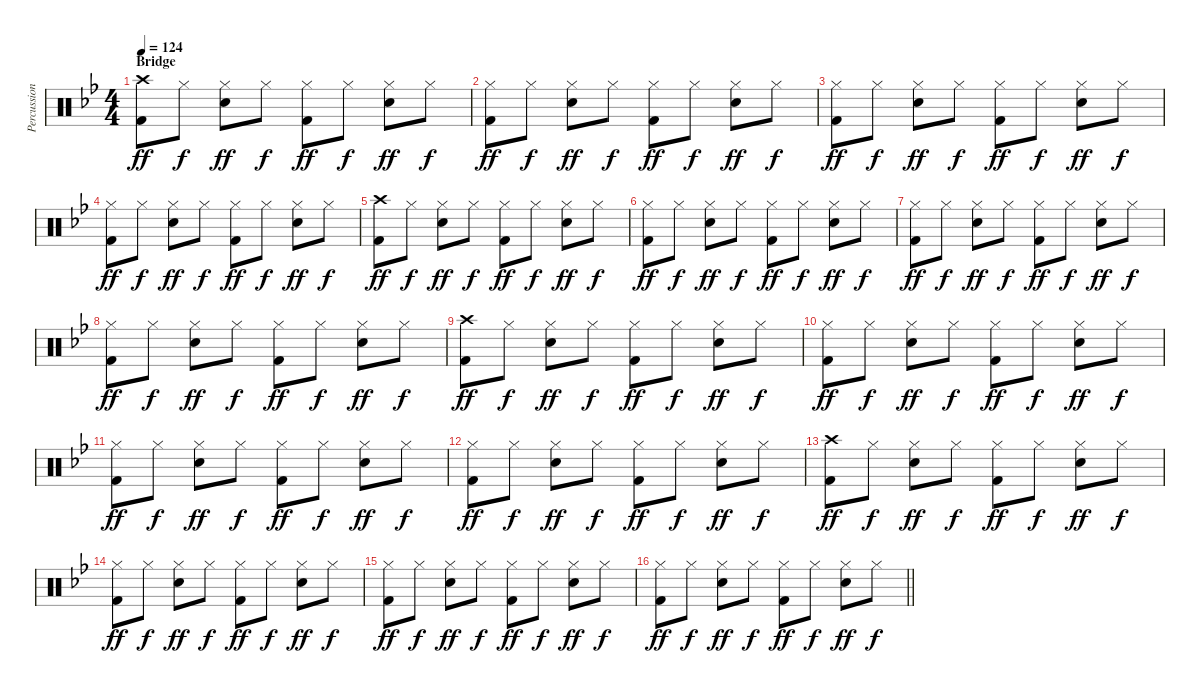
\track ("Percussion" "Percussion") {instrument percussion}
\staff {score}
\articulation defaults
\ts (4 4)
\section ("" "Bridge")
\tempo 124
\clef neutral
\ks gminor
("Crash high (hit)" "Kick (hit) 2").8{dy ff} "Hi-Hat (closed)".8{dy f} ("Hi-Hat (closed)" "Electric Snare (hit)").8{dy ff} "Hi-Hat (closed)".8{dy f} ("Hi-Hat (closed)" "Kick (hit) 2").8{dy ff} "Hi-Hat (closed)".8{dy f} ("Hi-Hat (closed)" "Electric Snare (hit)").8{dy ff} "Hi-Hat (closed)".8{dy f} |
("Hi-Hat (closed)" "Kick (hit) 2").8{dy ff} "Hi-Hat (closed)".8{dy f} ("Hi-Hat (closed)" "Electric Snare (hit)").8{dy ff} "Hi-Hat (closed)".8{dy f} ("Hi-Hat (closed)" "Kick (hit) 2").8{dy ff} "Hi-Hat (closed)".8{dy f} ("Hi-Hat (closed)" "Electric Snare (hit)").8{dy ff} "Hi-Hat (closed)".8{dy f} |
("Hi-Hat (closed)" "Kick (hit) 2").8{dy ff} "Hi-Hat (closed)".8{dy f} ("Hi-Hat (closed)" "Electric Snare (hit)").8{dy ff} "Hi-Hat (closed)".8{dy f} ("Hi-Hat (closed)" "Kick (hit) 2").8{dy ff} "Hi-Hat (closed)".8{dy f} ("Hi-Hat (closed)" "Electric Snare (hit)").8{dy ff} "Hi-Hat (closed)".8{dy f} |
("Hi-Hat (closed)" "Kick (hit) 2").8{dy ff} "Hi-Hat (closed)".8{dy f} ("Hi-Hat (closed)" "Electric Snare (hit)").8{dy ff} "Hi-Hat (closed)".8{dy f} ("Hi-Hat (closed)" "Kick (hit) 2").8{dy ff} "Hi-Hat (closed)".8{dy f} ("Hi-Hat (closed)" "Electric Snare (hit)").8{dy ff} "Hi-Hat (closed)".8{dy f} |
("Crash high (hit)" "Kick (hit) 2").8{dy ff} "Hi-Hat (closed)".8{dy f} ("Hi-Hat (closed)" "Electric Snare (hit)").8{dy ff} "Hi-Hat (closed)".8{dy f} ("Hi-Hat (closed)" "Kick (hit) 2").8{dy ff} "Hi-Hat (closed)".8{dy f} ("Hi-Hat (closed)" "Electric Snare (hit)").8{dy ff} "Hi-Hat (closed)".8{dy f} |
("Hi-Hat (closed)" "Kick (hit) 2").8{dy ff} "Hi-Hat (closed)".8{dy f} ("Hi-Hat (closed)" "Electric Snare (hit)").8{dy ff} "Hi-Hat (closed)".8{dy f} ("Hi-Hat (closed)" "Kick (hit) 2").8{dy ff} "Hi-Hat (closed)".8{dy f} ("Hi-Hat (closed)" "Electric Snare (hit)").8{dy ff} "Hi-Hat (closed)".8{dy f} |
("Hi-Hat (closed)" "Kick (hit) 2").8{dy ff} "Hi-Hat (closed)".8{dy f} ("Hi-Hat (closed)" "Electric Snare (hit)").8{dy ff} "Hi-Hat (closed)".8{dy f} ("Hi-Hat (closed)" "Kick (hit) 2").8{dy ff} "Hi-Hat (closed)".8{dy f} ("Hi-Hat (closed)" "Electric Snare (hit)").8{dy ff} "Hi-Hat (closed)".8{dy f} |
("Hi-Hat (closed)" "Kick (hit) 2").8{dy ff} "Hi-Hat (closed)".8{dy f} ("Hi-Hat (closed)" "Electric Snare (hit)").8{dy ff} "Hi-Hat (closed)".8{dy f} ("Hi-Hat (closed)" "Kick (hit) 2").8{dy ff} "Hi-Hat (closed)".8{dy f} ("Hi-Hat (closed)" "Electric Snare (hit)").8{dy ff} "Hi-Hat (closed)".8{dy f} |
("Crash high (hit)" "Kick (hit) 2").8{dy ff} "Hi-Hat (closed)".8{dy f} ("Hi-Hat (closed)" "Electric Snare (hit)").8{dy ff} "Hi-Hat (closed)".8{dy f} ("Hi-Hat (closed)" "Kick (hit) 2").8{dy ff} "Hi-Hat (closed)".8{dy f} ("Hi-Hat (closed)" "Electric Snare (hit)").8{dy ff} "Hi-Hat (closed)".8{dy f} |
("Hi-Hat (closed)" "Kick (hit) 2").8{dy ff} "Hi-Hat (closed)".8{dy f} ("Hi-Hat (closed)" "Electric Snare (hit)").8{dy ff} "Hi-Hat (closed)".8{dy f} ("Hi-Hat (closed)" "Kick (hit) 2").8{dy ff} "Hi-Hat (closed)".8{dy f} ("Hi-Hat (closed)" "Electric Snare (hit)").8{dy ff} "Hi-Hat (closed)".8{dy f} |
("Hi-Hat (closed)" "Kick (hit) 2").8{dy ff} "Hi-Hat (closed)".8{dy f} ("Hi-Hat (closed)" "Electric Snare (hit)").8{dy ff} "Hi-Hat (closed)".8{dy f} ("Hi-Hat (closed)" "Kick (hit) 2").8{dy ff} "Hi-Hat (closed)".8{dy f} ("Hi-Hat (closed)" "Electric Snare (hit)").8{dy ff} "Hi-Hat (closed)".8{dy f} |
("Hi-Hat (closed)" "Kick (hit) 2").8{dy ff} "Hi-Hat (closed)".8{dy f} ("Hi-Hat (closed)" "Electric Snare (hit)").8{dy ff} "Hi-Hat (closed)".8{dy f} ("Hi-Hat (closed)" "Kick (hit) 2").8{dy ff} "Hi-Hat (closed)".8{dy f} ("Hi-Hat (closed)" "Electric Snare (hit)").8{dy ff} "Hi-Hat (closed)".8{dy f} |
("Crash high (hit)" "Kick (hit) 2").8{dy ff} "Hi-Hat (closed)".8{dy f} ("Hi-Hat (closed)" "Electric Snare (hit)").8{dy ff} "Hi-Hat (closed)".8{dy f} ("Hi-Hat (closed)" "Kick (hit) 2").8{dy ff} "Hi-Hat (closed)".8{dy f} ("Hi-Hat (closed)" "Electric Snare (hit)").8{dy ff} "Hi-Hat (closed)".8{dy f} |
("Hi-Hat (closed)" "Kick (hit) 2").8{dy ff} "Hi-Hat (closed)".8{dy f} ("Hi-Hat (closed)" "Electric Snare (hit)").8{dy ff} "Hi-Hat (closed)".8{dy f} ("Hi-Hat (closed)" "Kick (hit) 2").8{dy ff} "Hi-Hat (closed)".8{dy f} ("Hi-Hat (closed)" "Electric Snare (hit)").8{dy ff} "Hi-Hat (closed)".8{dy f} |
("Hi-Hat (closed)" "Kick (hit) 2").8{dy ff} "Hi-Hat (closed)".8{dy f} ("Hi-Hat (closed)" "Electric Snare (hit)").8{dy ff} "Hi-Hat (closed)".8{dy f} ("Hi-Hat (closed)" "Kick (hit) 2").8{dy ff} "Hi-Hat (closed)".8{dy f} ("Hi-Hat (closed)" "Electric Snare (hit)").8{dy ff} "Hi-Hat (closed)".8{dy f} |
\barLineRight lightlight
("Hi-Hat (closed)" "Kick (hit) 2").8{dy ff} "Hi-Hat (closed)".8{dy f} ("Hi-Hat (closed)" "Electric Snare (hit)").8{dy ff} "Hi-Hat (closed)".8{dy f} ("Hi-Hat (closed)" "Kick (hit) 2").8{dy ff} "Hi-Hat (closed)".8{dy f} ("Hi-Hat (closed)" "Electric Snare (hit)").8{dy ff} "Hi-Hat (closed)".8{dy f}
